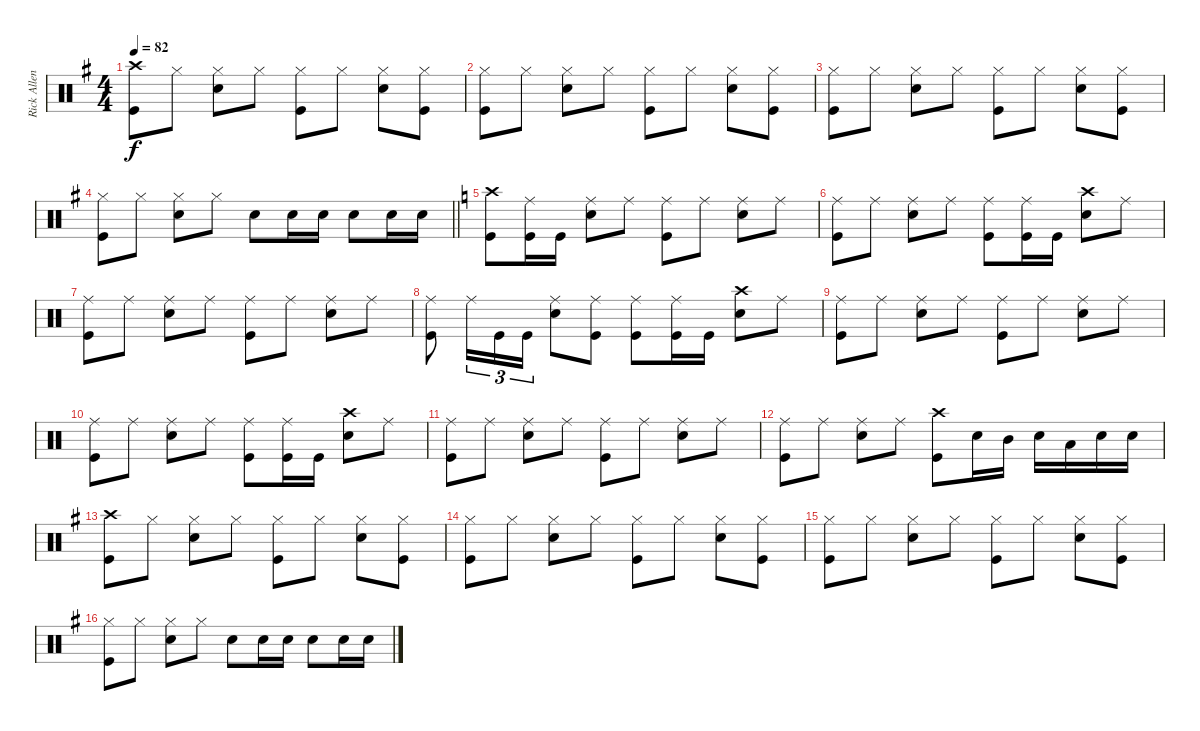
\track ("Rick Allen" "Rick Allen") {instrument percussion}
\staff {score}
\articulation defaults
\ts (4 4)
\tempo 82
\clef neutral
\ks eminor
("Crash high (hit)" "Kick (hit)").8{dy f} "Hi-Hat (closed)".8 ("Hi-Hat (closed)" "Snare (hit) 2").8 "Hi-Hat (closed)".8 ("Hi-Hat (closed)" "Kick (hit)").8 "Hi-Hat (closed)".8 ("Hi-Hat (closed)" "Snare (hit) 2").8 ("Hi-Hat (closed)" "Kick (hit)").8 |
("Hi-Hat (closed)" "Kick (hit)").8 "Hi-Hat (closed)".8 ("Hi-Hat (closed)" "Snare (hit) 2").8 "Hi-Hat (closed)".8 ("Hi-Hat (closed)" "Kick (hit)").8 "Hi-Hat (closed)".8 ("Hi-Hat (closed)" "Snare (hit) 2").8 ("Hi-Hat (closed)" "Kick (hit)").8 |
("Hi-Hat (closed)" "Kick (hit)").8 "Hi-Hat (closed)".8 ("Hi-Hat (closed)" "Snare (hit) 2").8 "Hi-Hat (closed)".8 ("Hi-Hat (closed)" "Kick (hit)").8 "Hi-Hat (closed)".8 ("Hi-Hat (closed)" "Snare (hit) 2").8 ("Hi-Hat (closed)" "Kick (hit)").8 |
\barLineRight lightlight
("Hi-Hat (closed)" "Kick (hit)").8 "Hi-Hat (closed)".8 ("Hi-Hat (closed)" "Snare (hit) 2").8 "Hi-Hat (closed)".8 "Snare (hit) 2".8 "Snare (hit) 2".16 "Snare (hit) 2".16 "Snare (hit) 2".8 "Snare (hit) 2".16 "Snare (hit) 2".16 |
\ks aminor
("Crash high (hit)" "Kick (hit)").8 ("Ride (middle)" "Kick (hit)").16 "Kick (hit)".16 ("Ride (middle)" "Snare (hit) 2").8 "Ride (middle)".8 ("Ride (middle)" "Kick (hit)").8 "Ride (middle)".8 ("Ride (middle)" "Snare (hit) 2").8 "Ride (middle)".8 |
("Ride (middle)" "Kick (hit)").8 "Ride (middle)".8 ("Ride (middle)" "Snare (hit) 2").8 "Ride (middle)".8 ("Ride (middle)" "Kick (hit)").8 ("Ride (middle)" "Kick (hit)").16 "Kick (hit)".16 ("Crash high (hit)" "Snare (hit) 2").8 "Ride (middle)".8 |
("Ride (middle)" "Kick (hit)").8 "Ride (middle)".8 ("Ride (middle)" "Snare (hit) 2").8 "Ride (middle)".8 ("Ride (middle)" "Kick (hit)").8 "Ride (middle)".8 ("Ride (middle)" "Snare (hit) 2").8 "Ride (middle)".8 |
("Ride (middle)" "Kick (hit)").8 "Ride (middle)".16{tu (3 2)} "Kick (hit)".16{tu (3 2)} "Kick (hit)".16{tu (3 2)} ("Ride (middle)" "Snare (hit) 2").8 ("Ride (middle)" "Kick (hit)").8 ("Ride (middle)" "Kick (hit)").8 ("Ride (middle)" "Kick (hit)").16 "Kick (hit)".16 ("Crash high (hit)" "Snare (hit) 2").8 "Ride (middle)".8 |
("Ride (middle)" "Kick (hit)").8 "Ride (middle)".8 ("Ride (middle)" "Snare (hit) 2").8 "Ride (middle)".8 ("Ride (middle)" "Kick (hit)").8 "Ride (middle)".8 ("Ride (middle)" "Snare (hit) 2").8 "Ride (middle)".8 |
("Ride (middle)" "Kick (hit)").8 "Ride (middle)".8 ("Ride (middle)" "Snare (hit) 2").8 "Ride (middle)".8 ("Ride (middle)" "Kick (hit)").8 ("Ride (middle)" "Kick (hit)").16 "Kick (hit)".16 ("Crash high (hit)" "Snare (hit) 2").8 "Ride (middle)".8 |
("Ride (middle)" "Kick (hit)").8 "Ride (middle)".8 ("Ride (middle)" "Snare (hit) 2").8 "Ride (middle)".8 ("Ride (middle)" "Kick (hit)").8 "Ride (middle)".8 ("Ride (middle)" "Snare (hit) 2").8 "Ride (middle)".8 |
("Ride (middle)" "Kick (hit)").8 "Ride (middle)".8 ("Ride (middle)" "Snare (hit) 2").8 "Ride (middle)".8 ("Crash high (hit)" "Kick (hit)").8 "Snare (hit) 2".16 "Mid Tom (hit)".16 "Snare (hit) 2".16 "Low Tom (hit)".16 "Snare (hit) 2".16 "Snare (hit) 2".16 |
\ks eminor
("Crash high (hit)" "Kick (hit)").8 "Hi-Hat (closed)".8 ("Hi-Hat (closed)" "Snare (hit) 2").8 "Hi-Hat (closed)".8 ("Hi-Hat (closed)" "Kick (hit)").8 "Hi-Hat (closed)".8 ("Hi-Hat (closed)" "Snare (hit) 2").8 ("Hi-Hat (closed)" "Kick (hit)").8 |
("Hi-Hat (closed)" "Kick (hit)").8 "Hi-Hat (closed)".8 ("Hi-Hat (closed)" "Snare (hit) 2").8 "Hi-Hat (closed)".8 ("Hi-Hat (closed)" "Kick (hit)").8 "Hi-Hat (closed)".8 ("Hi-Hat (closed)" "Snare (hit) 2").8 ("Hi-Hat (closed)" "Kick (hit)").8 |
("Hi-Hat (closed)" "Kick (hit)").8 "Hi-Hat (closed)".8 ("Hi-Hat (closed)" "Snare (hit) 2").8 "Hi-Hat (closed)".8 ("Hi-Hat (closed)" "Kick (hit)").8 "Hi-Hat (closed)".8 ("Hi-Hat (closed)" "Snare (hit) 2").8 ("Hi-Hat (closed)" "Kick (hit)").8 |
("Hi-Hat (closed)" "Kick (hit)").8 "Hi-Hat (closed)".8 ("Hi-Hat (closed)" "Snare (hit) 2").8 "Hi-Hat (closed)".8 "Snare (hit) 2".8 "Snare (hit) 2".16 "Snare (hit) 2".16 "Snare (hit) 2".8 "Snare (hit) 2".16 "Snare (hit) 2".16
